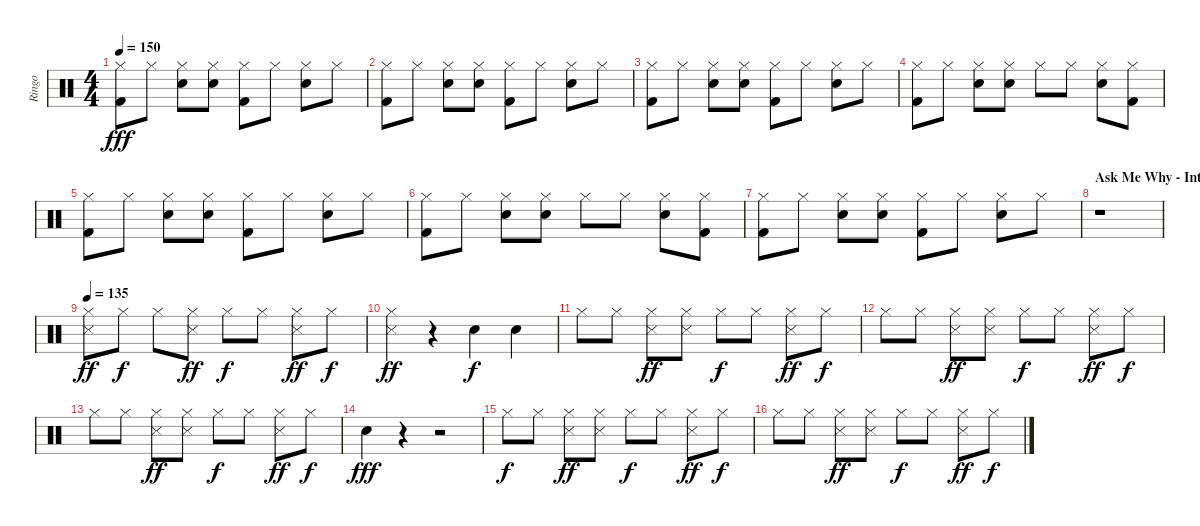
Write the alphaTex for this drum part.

\track ("Ringo" "Ringo") {instrument percussion}
\staff {score}
\articulation defaults
\ts (4 4)
\tempo 150
\clef neutral
\ks c
("Hi-Hat (closed)" "Kick (hit) 2").8{dy fff} "Hi-Hat (closed)".8 ("Hi-Hat (closed)" "Snare (hit) 2").8 ("Hi-Hat (closed)" "Snare (hit) 2").8 ("Hi-Hat (closed)" "Kick (hit) 2").8 "Hi-Hat (closed)".8 ("Hi-Hat (closed)" "Snare (hit) 2").8 "Hi-Hat (closed)".8 |
("Hi-Hat (closed)" "Kick (hit) 2").8 "Hi-Hat (closed)".8 ("Hi-Hat (closed)" "Snare (hit) 2").8 ("Hi-Hat (closed)" "Snare (hit) 2").8 ("Hi-Hat (closed)" "Kick (hit) 2").8 "Hi-Hat (closed)".8 ("Hi-Hat (closed)" "Snare (hit) 2").8 "Hi-Hat (closed)".8 |
("Hi-Hat (closed)" "Kick (hit) 2").8 "Hi-Hat (closed)".8 ("Hi-Hat (closed)" "Snare (hit) 2").8 ("Hi-Hat (closed)" "Snare (hit) 2").8 ("Hi-Hat (closed)" "Kick (hit) 2").8 "Hi-Hat (closed)".8 ("Hi-Hat (closed)" "Snare (hit) 2").8 "Hi-Hat (closed)".8 |
("Hi-Hat (closed)" "Kick (hit) 2").8 "Hi-Hat (closed)".8 ("Hi-Hat (closed)" "Snare (hit) 2").8 ("Hi-Hat (closed)" "Snare (hit) 2").8 "Hi-Hat (closed)".8 "Hi-Hat (closed)".8 ("Hi-Hat (closed)" "Snare (hit) 2").8 ("Hi-Hat (closed)" "Kick (hit) 2").8 |
("Hi-Hat (closed)" "Kick (hit) 2").8 "Hi-Hat (closed)".8 ("Hi-Hat (closed)" "Snare (hit) 2").8 ("Hi-Hat (closed)" "Snare (hit) 2").8 ("Hi-Hat (closed)" "Kick (hit) 2").8 "Hi-Hat (closed)".8 ("Hi-Hat (closed)" "Snare (hit) 2").8 "Hi-Hat (closed)".8 |
("Hi-Hat (closed)" "Kick (hit) 2").8 "Hi-Hat (closed)".8 ("Hi-Hat (closed)" "Snare (hit) 2").8 ("Hi-Hat (closed)" "Snare (hit) 2").8 "Hi-Hat (closed)".8 "Hi-Hat (closed)".8 ("Hi-Hat (closed)" "Snare (hit) 2").8 ("Hi-Hat (closed)" "Kick (hit) 2").8 |
("Hi-Hat (closed)" "Kick (hit) 2").8 "Hi-Hat (closed)".8 ("Hi-Hat (closed)" "Snare (hit) 2").8 ("Hi-Hat (closed)" "Snare (hit) 2").8 ("Hi-Hat (closed)" "Kick (hit) 2").8 "Hi-Hat (closed)".8 ("Hi-Hat (closed)" "Snare (hit) 2").8 "Hi-Hat (closed)".8 |
\section ("" "Ask Me Why - Intro")
r.1 |
\tempo 135
("Hi-Hat (closed)" "Snare (side stick) 3").8{dy ff volume 15} "Hi-Hat (closed)".8{dy f} "Hi-Hat (closed)".8 ("Hi-Hat (closed)" "Snare (side stick) 3").8{dy ff} "Hi-Hat (closed)".8{dy f} "Hi-Hat (closed)".8 ("Hi-Hat (closed)" "Snare (side stick) 3").8{dy ff} "Hi-Hat (closed)".8{dy f} |
("Hi-Hat (closed)" "Snare (side stick) 3").4{dy ff} r.4 "Electric Snare (hit)".4{dy f} "Electric Snare (hit)".4 |
"Hi-Hat (closed)".8 "Hi-Hat (closed)".8 ("Hi-Hat (closed)" "Snare (side stick) 3").8{dy ff} ("Hi-Hat (closed)" "Snare (side stick) 3").8 "Hi-Hat (closed)".8{dy f} "Hi-Hat (closed)".8 ("Hi-Hat (closed)" "Snare (side stick) 3").8{dy ff} "Hi-Hat (closed)".8{dy f} |
"Hi-Hat (closed)".8 "Hi-Hat (closed)".8 ("Hi-Hat (closed)" "Snare (side stick) 3").8{dy ff} ("Hi-Hat (closed)" "Snare (side stick) 3").8 "Hi-Hat (closed)".8{dy f} "Hi-Hat (closed)".8 ("Hi-Hat (closed)" "Snare (side stick) 3").8{dy ff} "Hi-Hat (closed)".8{dy f} |
"Hi-Hat (closed)".8 "Hi-Hat (closed)".8 ("Hi-Hat (closed)" "Snare (side stick) 3").8{dy ff} ("Hi-Hat (closed)" "Snare (side stick) 3").8 "Hi-Hat (closed)".8{dy f} "Hi-Hat (closed)".8 ("Hi-Hat (closed)" "Snare (side stick) 3").8{dy ff} "Hi-Hat (closed)".8{dy f} |
"Electric Snare (hit)".4{dy fff} r.4 r.2 |
"Hi-Hat (closed)".8{dy f} "Hi-Hat (closed)".8 ("Hi-Hat (closed)" "Snare (side stick) 3").8{dy ff} ("Hi-Hat (closed)" "Snare (side stick) 3").8 "Hi-Hat (closed)".8{dy f} "Hi-Hat (closed)".8 ("Hi-Hat (closed)" "Snare (side stick) 3").8{dy ff} "Hi-Hat (closed)".8{dy f} |
"Hi-Hat (closed)".8 "Hi-Hat (closed)".8 ("Hi-Hat (closed)" "Snare (side stick) 3").8{dy ff} ("Hi-Hat (closed)" "Snare (side stick) 3").8 "Hi-Hat (closed)".8{dy f} "Hi-Hat (closed)".8 ("Hi-Hat (closed)" "Snare (side stick) 3").8{dy ff} "Hi-Hat (closed)".8{dy f}
